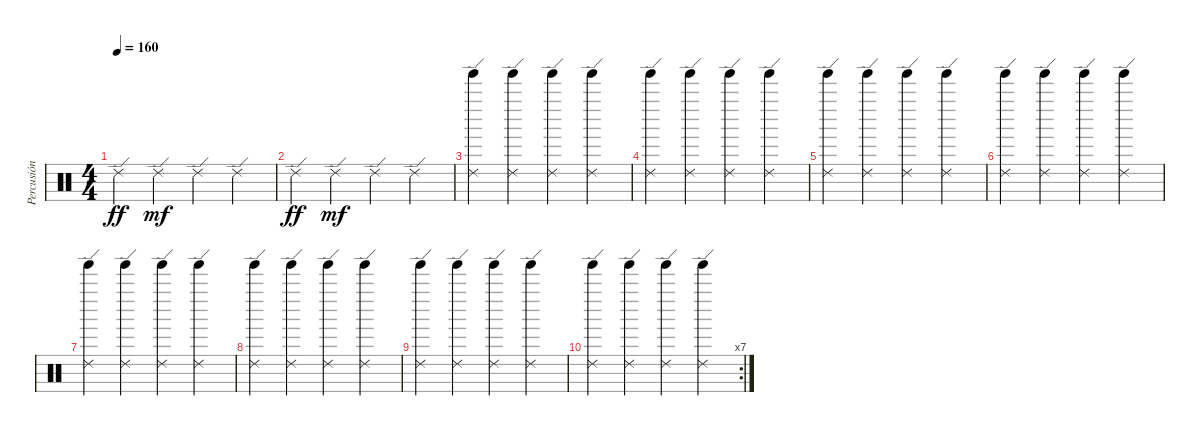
\track ("Percusión" "Percusión") {instrument percussion}
\staff {score}
\articulation defaults
\ts (4 4)
\tempo 160
\clef neutral
\ks c "Ride (edge) 2".4{dy ff} "Ride (edge) 2".4{dy mf} "Ride (edge) 2".4 "Ride (edge) 2".4
|
"Ride (edge) 2".4{dy ff} "Ride (edge) 2".4{dy mf} "Ride (edge) 2".4 "Ride (edge) 2".4 |
("Ride (edge) 2" "Tinkle Bell (hit)").4 ("Ride (edge) 2" "Tinkle Bell (hit)").4 ("Ride (edge) 2" "Tinkle Bell (hit)").4 ("Ride (edge) 2" "Tinkle Bell (hit)").4 |
("Ride (edge) 2" "Tinkle Bell (hit)").4 ("Ride (edge) 2" "Tinkle Bell (hit)").4 ("Ride (edge) 2" "Tinkle Bell (hit)").4 ("Ride (edge) 2" "Tinkle Bell (hit)").4 |
("Ride (edge) 2" "Tinkle Bell (hit)").4 ("Ride (edge) 2" "Tinkle Bell (hit)").4 ("Ride (edge) 2" "Tinkle Bell (hit)").4 ("Ride (edge) 2" "Tinkle Bell (hit)").4 |
("Ride (edge) 2" "Tinkle Bell (hit)").4 ("Ride (edge) 2" "Tinkle Bell (hit)").4 ("Ride (edge) 2" "Tinkle Bell (hit)").4 ("Ride (edge) 2" "Tinkle Bell (hit)").4 |
("Ride (edge) 2" "Tinkle Bell (hit)").4 ("Ride (edge) 2" "Tinkle Bell (hit)").4 ("Ride (edge) 2" "Tinkle Bell (hit)").4 ("Ride (edge) 2" "Tinkle Bell (hit)").4 |
("Ride (edge) 2" "Tinkle Bell (hit)").4 ("Ride (edge) 2" "Tinkle Bell (hit)").4 ("Ride (edge) 2" "Tinkle Bell (hit)").4 ("Ride (edge) 2" "Tinkle Bell (hit)").4 |
("Ride (edge) 2" "Tinkle Bell (hit)").4 ("Ride (edge) 2" "Tinkle Bell (hit)").4 ("Ride (edge) 2" "Tinkle Bell (hit)").4 ("Ride (edge) 2" "Tinkle Bell (hit)").4 |
\rc 7
("Ride (edge) 2" "Tinkle Bell (hit)").4 ("Ride (edge) 2" "Tinkle Bell (hit)").4 ("Ride (edge) 2" "Tinkle Bell (hit)").4 ("Ride (edge) 2" "Tinkle Bell (hit)").4
